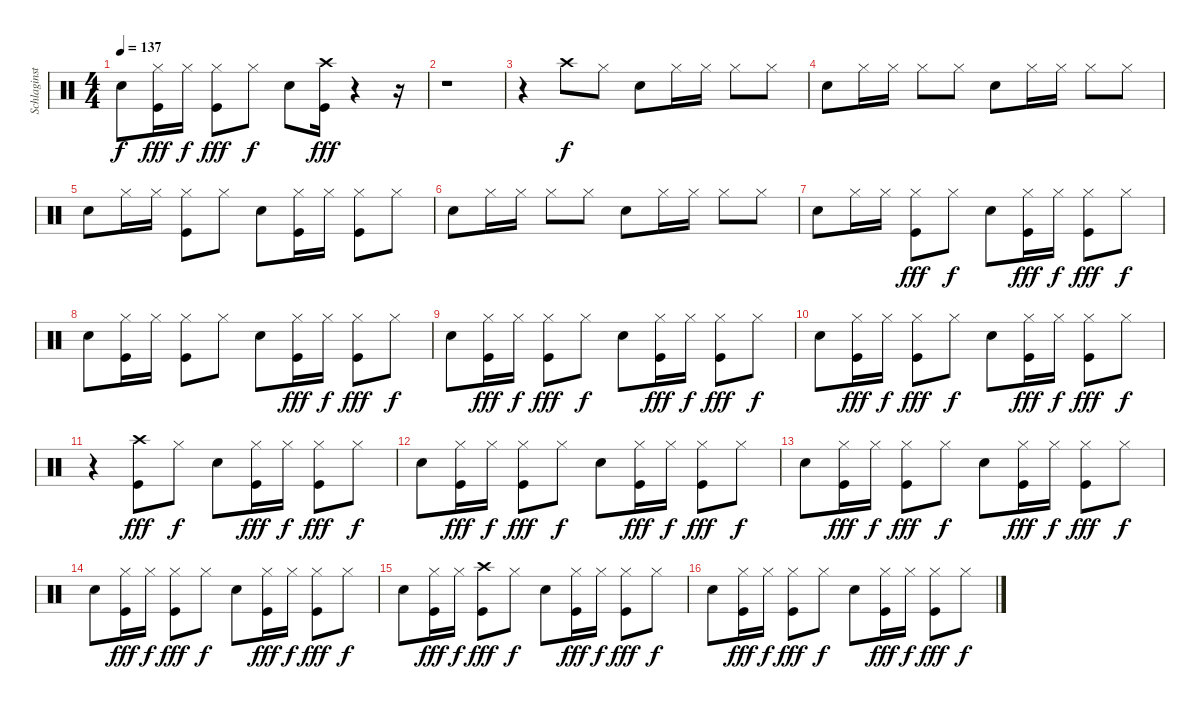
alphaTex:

\track ("Schlaginstrument" "Schlaginst") {instrument percussion}
\staff {score}
\articulation defaults
\ts (4 4)
\tempo 137
\clef neutral
\ks c "Hand Clap (hit)".8{dy f}
("Hi-Hat (closed)" "Kick (hit)").16{dy fff} "Hi-Hat (closed)".16{dy f} ("Hi-Hat (closed)" "Kick (hit)").8{dy fff} "Hi-Hat (closed)".8{dy f} "Hand Clap (hit)".8 ("Crash high (hit)" "Kick (hit)").16{dy fff} r.4 r.16 |
r.1 |
r.4 "Crash high (hit)".8{dy f} "Hi-Hat (closed)".8 "Hand Clap (hit)".8 "Hi-Hat (closed)".16 "Hi-Hat (closed)".16 "Hi-Hat (closed)".8 "Hi-Hat (closed)".8 |
"Hand Clap (hit)".8 "Hi-Hat (closed)".16 "Hi-Hat (closed)".16 "Hi-Hat (closed)".8 "Hi-Hat (closed)".8 "Hand Clap (hit)".8 "Hi-Hat (closed)".16 "Hi-Hat (closed)".16 "Hi-Hat (closed)".8 "Hi-Hat (closed)".8 |
"Hand Clap (hit)".8 "Hi-Hat (closed)".16 "Hi-Hat (closed)".16 ("Hi-Hat (closed)" "Kick (hit)").8 "Hi-Hat (closed)".8 "Hand Clap (hit)".8 ("Hi-Hat (closed)" "Kick (hit)").16 "Hi-Hat (closed)".16 ("Hi-Hat (closed)" "Kick (hit)").8 "Hi-Hat (closed)".8 |
"Hand Clap (hit)".8 "Hi-Hat (closed)".16 "Hi-Hat (closed)".16 "Hi-Hat (closed)".8 "Hi-Hat (closed)".8 "Hand Clap (hit)".8 "Hi-Hat (closed)".16 "Hi-Hat (closed)".16 "Hi-Hat (closed)".8 "Hi-Hat (closed)".8 |
"Hand Clap (hit)".8 "Hi-Hat (closed)".16 "Hi-Hat (closed)".16 ("Hi-Hat (closed)" "Kick (hit)").8{dy fff} "Hi-Hat (closed)".8{dy f} "Hand Clap (hit)".8 ("Hi-Hat (closed)" "Kick (hit)").16{dy fff} "Hi-Hat (closed)".16{dy f} ("Hi-Hat (closed)" "Kick (hit)").8{dy fff} "Hi-Hat (closed)".8{dy f} |
"Hand Clap (hit)".8 ("Hi-Hat (closed)" "Kick (hit)").16 "Hi-Hat (closed)".16 ("Hi-Hat (closed)" "Kick (hit)").8 "Hi-Hat (closed)".8 "Hand Clap (hit)".8 ("Hi-Hat (closed)" "Kick (hit)").16{dy fff} "Hi-Hat (closed)".16{dy f} ("Hi-Hat (closed)" "Kick (hit)").8{dy fff} "Hi-Hat (closed)".8{dy f} |
"Hand Clap (hit)".8 ("Hi-Hat (closed)" "Kick (hit)").16{dy fff} "Hi-Hat (closed)".16{dy f} ("Hi-Hat (closed)" "Kick (hit)").8{dy fff} "Hi-Hat (closed)".8{dy f} "Hand Clap (hit)".8 ("Hi-Hat (closed)" "Kick (hit)").16{dy fff} "Hi-Hat (closed)".16{dy f} ("Hi-Hat (closed)" "Kick (hit)").8{dy fff} "Hi-Hat (closed)".8{dy f} |
"Hand Clap (hit)".8 ("Hi-Hat (closed)" "Kick (hit)").16{dy fff} "Hi-Hat (closed)".16{dy f} ("Hi-Hat (closed)" "Kick (hit)").8{dy fff} "Hi-Hat (closed)".8{dy f} "Hand Clap (hit)".8 ("Hi-Hat (closed)" "Kick (hit)").16{dy fff} "Hi-Hat (closed)".16{dy f} ("Hi-Hat (closed)" "Kick (hit)").8{dy fff} "Hi-Hat (closed)".8{dy f} |
r.4 ("Crash high (hit)" "Kick (hit)").8{dy fff} "Hi-Hat (closed)".8{dy f} "Hand Clap (hit)".8 ("Hi-Hat (closed)" "Kick (hit)").16{dy fff} "Hi-Hat (closed)".16{dy f} ("Hi-Hat (closed)" "Kick (hit)").8{dy fff} "Hi-Hat (closed)".8{dy f} |
"Hand Clap (hit)".8 ("Hi-Hat (closed)" "Kick (hit)").16{dy fff} "Hi-Hat (closed)".16{dy f} ("Hi-Hat (closed)" "Kick (hit)").8{dy fff} "Hi-Hat (closed)".8{dy f} "Hand Clap (hit)".8 ("Hi-Hat (closed)" "Kick (hit)").16{dy fff} "Hi-Hat (closed)".16{dy f} ("Hi-Hat (closed)" "Kick (hit)").8{dy fff} "Hi-Hat (closed)".8{dy f} |
"Hand Clap (hit)".8 ("Hi-Hat (closed)" "Kick (hit)").16{dy fff} "Hi-Hat (closed)".16{dy f} ("Hi-Hat (closed)" "Kick (hit)").8{dy fff} "Hi-Hat (closed)".8{dy f} "Hand Clap (hit)".8 ("Hi-Hat (closed)" "Kick (hit)").16{dy fff} "Hi-Hat (closed)".16{dy f} ("Hi-Hat (closed)" "Kick (hit)").8{dy fff} "Hi-Hat (closed)".8{dy f} |
"Hand Clap (hit)".8 ("Hi-Hat (closed)" "Kick (hit)").16{dy fff} "Hi-Hat (closed)".16{dy f} ("Hi-Hat (closed)" "Kick (hit)").8{dy fff} "Hi-Hat (closed)".8{dy f} "Hand Clap (hit)".8 ("Hi-Hat (closed)" "Kick (hit)").16{dy fff} "Hi-Hat (closed)".16{dy f} ("Hi-Hat (closed)" "Kick (hit)").8{dy fff} "Hi-Hat (closed)".8{dy f} |
"Hand Clap (hit)".8 ("Hi-Hat (closed)" "Kick (hit)").16{dy fff} "Hi-Hat (closed)".16{dy f} ("Crash high (hit)" "Kick (hit)").8{dy fff} "Hi-Hat (closed)".8{dy f} "Hand Clap (hit)".8 ("Hi-Hat (closed)" "Kick (hit)").16{dy fff} "Hi-Hat (closed)".16{dy f} ("Hi-Hat (closed)" "Kick (hit)").8{dy fff} "Hi-Hat (closed)".8{dy f} |
"Hand Clap (hit)".8 ("Hi-Hat (closed)" "Kick (hit)").16{dy fff} "Hi-Hat (closed)".16{dy f} ("Hi-Hat (closed)" "Kick (hit)").8{dy fff} "Hi-Hat (closed)".8{dy f} "Hand Clap (hit)".8 ("Hi-Hat (closed)" "Kick (hit)").16{dy fff} "Hi-Hat (closed)".16{dy f} ("Hi-Hat (closed)" "Kick (hit)").8{dy fff} "Hi-Hat (closed)".8{dy f}
